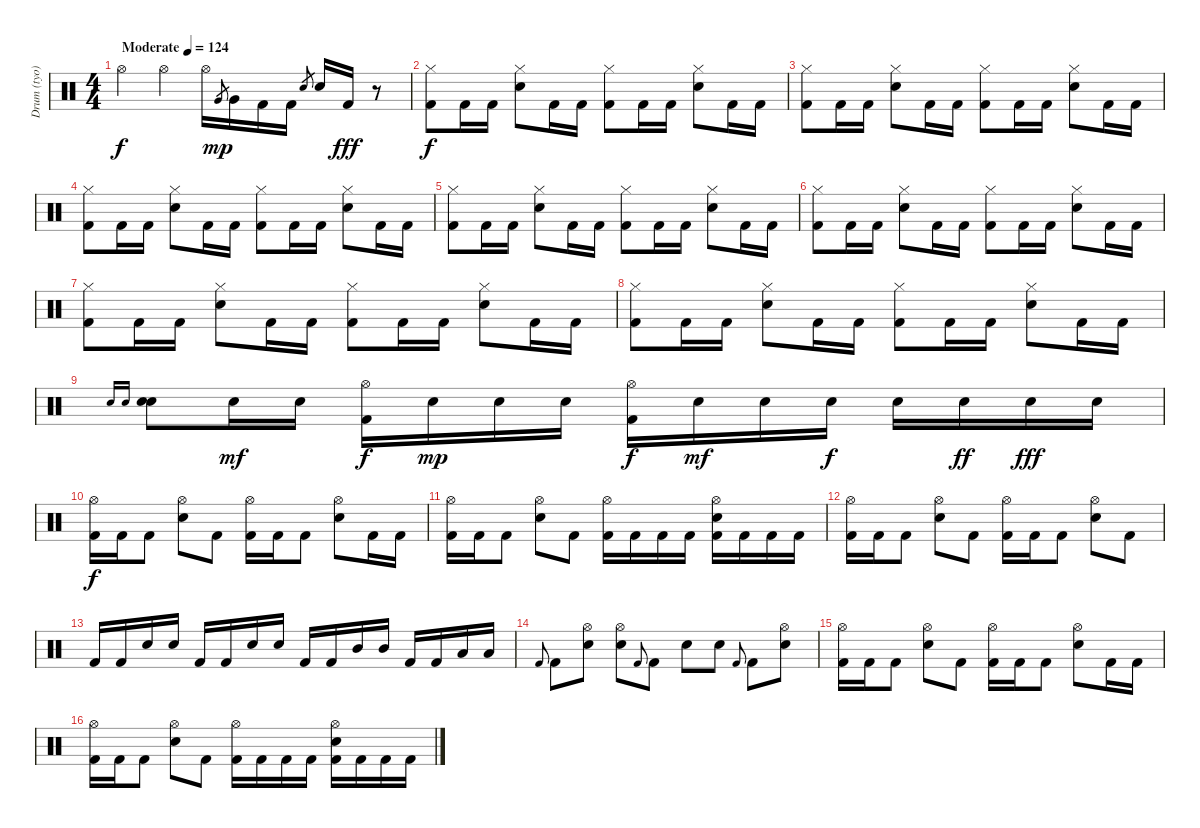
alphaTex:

\track ("Drum (tyo)" "Drum (tyo)") {instrument percussion}
\staff {score}
\articulation defaults
\ts (4 4)
\tempo (124 "Moderate")
\clef neutral
\ks c "Hi-Hat (open)".4{dy f} "Hi-Hat (open)".4 "Hi-Hat (open)".16 "Very Low Tom (hit)".8{gr dy mp} "Very Low Tom (hit)".16 "Kick (hit) 2".16 "Kick (hit) 2".16 "Electric Snare (hit)".8{gr} "Electric Snare (hit)".16 "Kick (hit) 2".16{dy fff}
r.8 |
("Hi-Hat (closed)" "Kick (hit) 2").8{dy f} "Kick (hit) 2".16 "Kick (hit) 2".16 ("Electric Snare (hit)" "Hi-Hat (closed)").8 "Kick (hit) 2".16 "Kick (hit) 2".16 ("Hi-Hat (closed)" "Kick (hit) 2").8 "Kick (hit) 2".16 "Kick (hit) 2".16 ("Electric Snare (hit)" "Hi-Hat (closed)").8 "Kick (hit) 2".16 "Kick (hit) 2".16 |
("Hi-Hat (closed)" "Kick (hit) 2").8 "Kick (hit) 2".16 "Kick (hit) 2".16 ("Electric Snare (hit)" "Hi-Hat (closed)").8 "Kick (hit) 2".16 "Kick (hit) 2".16 ("Hi-Hat (closed)" "Kick (hit) 2").8 "Kick (hit) 2".16 "Kick (hit) 2".16 ("Electric Snare (hit)" "Hi-Hat (closed)").8 "Kick (hit) 2".16 "Kick (hit) 2".16 |
("Hi-Hat (closed)" "Kick (hit) 2").8 "Kick (hit) 2".16 "Kick (hit) 2".16 ("Electric Snare (hit)" "Hi-Hat (closed)").8 "Kick (hit) 2".16 "Kick (hit) 2".16 ("Hi-Hat (closed)" "Kick (hit) 2").8 "Kick (hit) 2".16 "Kick (hit) 2".16 ("Electric Snare (hit)" "Hi-Hat (closed)").8 "Kick (hit) 2".16 "Kick (hit) 2".16 |
("Hi-Hat (closed)" "Kick (hit) 2").8 "Kick (hit) 2".16 "Kick (hit) 2".16 ("Electric Snare (hit)" "Hi-Hat (closed)").8 "Kick (hit) 2".16 "Kick (hit) 2".16 ("Hi-Hat (closed)" "Kick (hit) 2").8 "Kick (hit) 2".16 "Kick (hit) 2".16 ("Electric Snare (hit)" "Hi-Hat (closed)").8 "Kick (hit) 2".16 "Kick (hit) 2".16 |
("Hi-Hat (closed)" "Kick (hit) 2").8 "Kick (hit) 2".16 "Kick (hit) 2".16 ("Electric Snare (hit)" "Hi-Hat (closed)").8 "Kick (hit) 2".16 "Kick (hit) 2".16 ("Hi-Hat (closed)" "Kick (hit) 2").8 "Kick (hit) 2".16 "Kick (hit) 2".16 ("Electric Snare (hit)" "Hi-Hat (closed)").8 "Kick (hit) 2".16 "Kick (hit) 2".16 |
("Hi-Hat (closed)" "Kick (hit) 2").8 "Kick (hit) 2".16 "Kick (hit) 2".16 ("Electric Snare (hit)" "Hi-Hat (closed)").8 "Kick (hit) 2".16 "Kick (hit) 2".16 ("Hi-Hat (closed)" "Kick (hit) 2").8 "Kick (hit) 2".16 "Kick (hit) 2".16 ("Electric Snare (hit)" "Hi-Hat (closed)").8 "Kick (hit) 2".16 "Kick (hit) 2".16 |
("Hi-Hat (closed)" "Kick (hit) 2").8 "Kick (hit) 2".16 "Kick (hit) 2".16 ("Electric Snare (hit)" "Hi-Hat (closed)").8 "Kick (hit) 2".16 "Kick (hit) 2".16 ("Hi-Hat (closed)" "Kick (hit) 2").8 "Kick (hit) 2".16 "Kick (hit) 2".16 ("Electric Snare (hit)" "Hi-Hat (closed)").8 "Kick (hit) 2".16 "Kick (hit) 2".16 |
"Snare (hit)".16{gr onbeat} "Electric Snare (hit)".16{gr onbeat} ("Snare (hit)" "Electric Snare (hit)").8 "Electric Snare (hit)".16{dy mf} "Electric Snare (hit)".16 ("Hi-Hat (open)" "Kick (hit) 2").16{dy f} "Electric Snare (hit)".16{dy mp} "Electric Snare (hit)".16 "Electric Snare (hit)".16 ("Hi-Hat (open)" "Kick (hit) 2").16{dy f} "Electric Snare (hit)".16{dy mf} "Electric Snare (hit)".16 "Electric Snare (hit)".16{dy f} "Electric Snare (hit)".16 "Electric Snare (hit)".16{dy ff} "Electric Snare (hit)".16{dy fff} "Electric Snare (hit)".16 |
("Hi-Hat (open)" "Kick (hit) 2").16{dy f} "Kick (hit) 2".16 "Kick (hit) 2".8 ("Snare (hit) 2" "Hi-Hat (open)").8 "Kick (hit) 2".8 ("Kick (hit) 2" "Hi-Hat (open)").16 "Kick (hit) 2".16 "Kick (hit) 2".8 ("Snare (hit) 2" "Hi-Hat (open)").8 "Kick (hit) 2".16 "Kick (hit) 2".16 |
("Hi-Hat (open)" "Kick (hit) 2").16 "Kick (hit) 2".16 "Kick (hit) 2".8 ("Snare (hit) 2" "Hi-Hat (open)").8 "Kick (hit) 2".8 ("Kick (hit) 2" "Hi-Hat (open)").16 "Kick (hit) 2".16 "Kick (hit) 2".16 "Kick (hit) 2".16 ("Kick (hit) 2" "Snare (hit) 2" "Hi-Hat (open)").16 "Kick (hit) 2".16 "Kick (hit) 2".16 "Kick (hit) 2".16 |
("Hi-Hat (open)" "Kick (hit) 2").16 "Kick (hit) 2".16 "Kick (hit) 2".8 ("Snare (hit) 2" "Hi-Hat (open)").8 "Kick (hit) 2".8 ("Kick (hit) 2" "Hi-Hat (open)").16 "Kick (hit) 2".16 "Kick (hit) 2".8 ("Snare (hit) 2" "Hi-Hat (open)").8 "Kick (hit) 2".8 |
"Kick (hit) 2".16 "Kick (hit) 2".16 "Electric Snare (hit)".16 "Electric Snare (hit)".16 "Kick (hit) 2".16 "Kick (hit) 2".16 "Electric Snare (hit)".16 "Electric Snare (hit)".16 "Kick (hit) 2".16 "Kick (hit) 2".16 "Mid Tom (hit)".16 "Mid Tom (hit)".16 "Kick (hit) 2".16 "Kick (hit) 2".16 "Low Tom (hit)".16 "Low Tom (hit)".16 |
"Kick (hit) 2".8{gr onbeat} "Kick (hit) 2".8 ("Hi-Hat (open)" "Snare (hit) 2").8 ("Hi-Hat (open)" "Snare (hit) 2").8 "Kick (hit) 2".8{gr onbeat} "Kick (hit) 2".8 "Snare (hit) 2".8 "Snare (hit) 2".8 "Kick (hit) 2".8{gr onbeat} "Kick (hit) 2".8 ("Snare (hit) 2" "Hi-Hat (open)").8 |
("Hi-Hat (open)" "Kick (hit) 2").16 "Kick (hit) 2".16 "Kick (hit) 2".8 ("Snare (hit) 2" "Hi-Hat (open)").8 "Kick (hit) 2".8 ("Kick (hit) 2" "Hi-Hat (open)").16 "Kick (hit) 2".16 "Kick (hit) 2".8 ("Snare (hit) 2" "Hi-Hat (open)").8 "Kick (hit) 2".16 "Kick (hit) 2".16 |
("Hi-Hat (open)" "Kick (hit) 2").16 "Kick (hit) 2".16 "Kick (hit) 2".8 ("Snare (hit) 2" "Hi-Hat (open)").8 "Kick (hit) 2".8 ("Kick (hit) 2" "Hi-Hat (open)").16 "Kick (hit) 2".16 "Kick (hit) 2".16 "Kick (hit) 2".16 ("Kick (hit) 2" "Snare (hit) 2" "Hi-Hat (open)").16 "Kick (hit) 2".16 "Kick (hit) 2".16 "Kick (hit) 2".16
